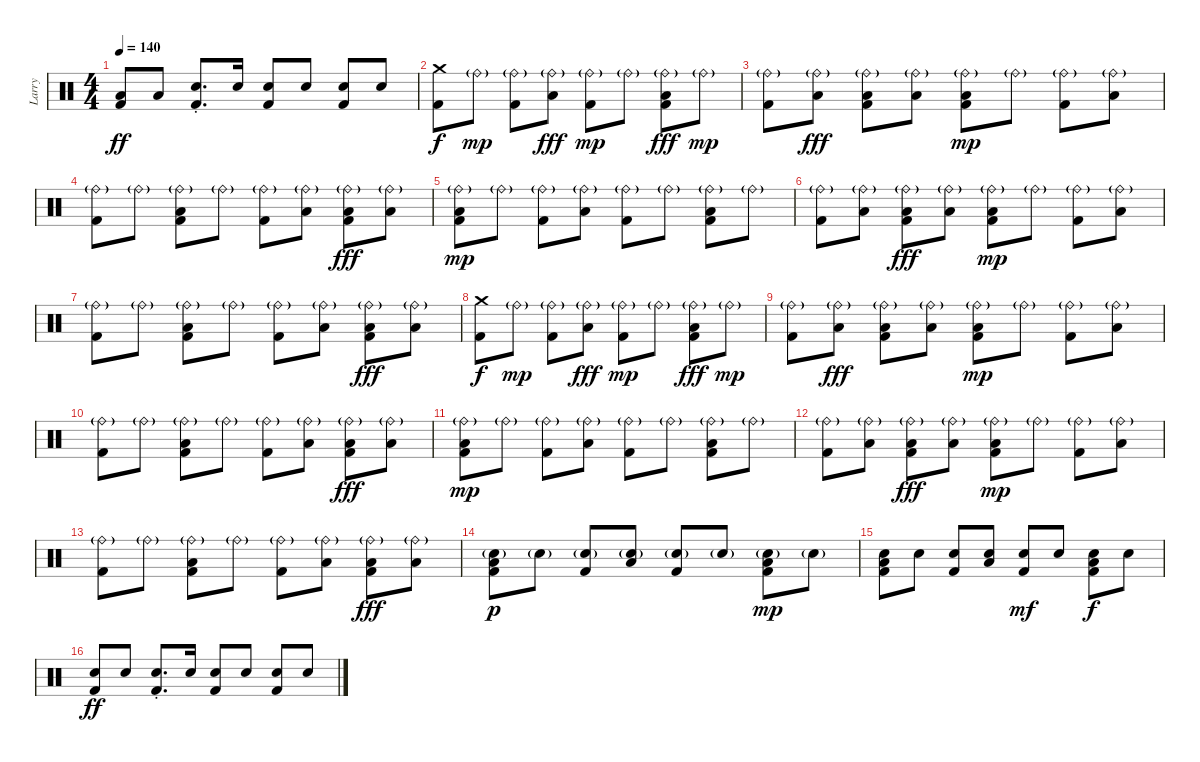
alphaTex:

\track ("Larry" "Larry") {instrument percussion}
\staff {score}
\articulation defaults
\ts (4 4)
\tempo 140
\clef neutral
\ks c
("Low Floor Tom (hit)" "Kick (hit) 2").8{dy ff} "Low Floor Tom (hit)".8 ("Electric Snare (hit)"{st} "Kick (hit) 2").8{d} "Electric Snare (hit)".16 ("Electric Snare (hit)" "Kick (hit) 2").8 "Electric Snare (hit)".8 ("Electric Snare (hit)" "Kick (hit) 2").8 "Electric Snare (hit)".8 |
("Crash medium (hit)" "Kick (hit) 2").8{dy f} "Ride (bell)"{g}.8{dy mp} ("Ride (bell)"{g} "Kick (hit) 2").8 ("Ride (bell)"{g} "Low Floor Tom (hit)").8{dy fff} ("Ride (bell)"{g} "Kick (hit) 2").8{dy mp} "Ride (bell)"{g}.8 ("Ride (bell)"{g} "Low Floor Tom (hit)" "Kick (hit) 2").8{dy fff} "Ride (bell)"{g}.8{dy mp} |
("Ride (bell)"{g} "Kick (hit) 2").8 ("Ride (bell)"{g} "Low Floor Tom (hit)").8{dy fff} ("Ride (bell)"{g} "Low Floor Tom (hit)" "Kick (hit) 2").8 ("Ride (bell)"{g} "Low Floor Tom (hit)").8 ("Ride (bell)"{g} "Low Floor Tom (hit)" "Kick (hit) 2").8{dy mp} "Ride (bell)"{g}.8 ("Ride (bell)"{g} "Kick (hit) 2").8 ("Ride (bell)"{g} "Low Floor Tom (hit)").8 |
("Ride (bell)"{g} "Kick (hit) 2").8 "Ride (bell)"{g}.8 ("Ride (bell)"{g} "Low Floor Tom (hit)" "Kick (hit) 2").8 "Ride (bell)"{g}.8 ("Ride (bell)"{g} "Kick (hit) 2").8 ("Ride (bell)"{g} "Low Floor Tom (hit)").8 ("Ride (bell)"{g} "Low Floor Tom (hit)" "Kick (hit) 2").8{dy fff} ("Ride (bell)"{g} "Low Floor Tom (hit)").8 |
("Ride (bell)"{g} "Low Floor Tom (hit)" "Kick (hit) 2").8{dy mp} "Ride (bell)"{g}.8 ("Ride (bell)"{g} "Kick (hit) 2").8 ("Ride (bell)"{g} "Low Floor Tom (hit)").8 ("Ride (bell)"{g} "Kick (hit) 2").8 "Ride (bell)"{g}.8 ("Ride (bell)"{g} "Low Floor Tom (hit)" "Kick (hit) 2").8 "Ride (bell)"{g}.8 |
("Ride (bell)"{g} "Kick (hit) 2").8 ("Ride (bell)"{g} "Low Floor Tom (hit)").8 ("Ride (bell)"{g} "Low Floor Tom (hit)" "Kick (hit) 2").8{dy fff} ("Ride (bell)"{g} "Low Floor Tom (hit)").8 ("Ride (bell)"{g} "Low Floor Tom (hit)" "Kick (hit) 2").8{dy mp} "Ride (bell)"{g}.8 ("Ride (bell)"{g} "Kick (hit) 2").8 ("Ride (bell)"{g} "Low Floor Tom (hit)").8 |
("Ride (bell)"{g} "Kick (hit) 2").8 "Ride (bell)"{g}.8 ("Ride (bell)"{g} "Low Floor Tom (hit)" "Kick (hit) 2").8 "Ride (bell)"{g}.8 ("Ride (bell)"{g} "Kick (hit) 2").8 ("Ride (bell)"{g} "Low Floor Tom (hit)").8 ("Ride (bell)"{g} "Low Floor Tom (hit)" "Kick (hit) 2").8{dy fff} ("Ride (bell)"{g} "Low Floor Tom (hit)").8 |
("Crash medium (hit)" "Kick (hit) 2").8{dy f} "Ride (bell)"{g}.8{dy mp} ("Ride (bell)"{g} "Kick (hit) 2").8 ("Ride (bell)"{g} "Low Floor Tom (hit)").8{dy fff} ("Ride (bell)"{g} "Kick (hit) 2").8{dy mp} "Ride (bell)"{g}.8 ("Ride (bell)"{g} "Low Floor Tom (hit)" "Kick (hit) 2").8{dy fff} "Ride (bell)"{g}.8{dy mp} |
("Ride (bell)"{g} "Kick (hit) 2").8 ("Ride (bell)"{g} "Low Floor Tom (hit)").8{dy fff} ("Ride (bell)"{g} "Low Floor Tom (hit)" "Kick (hit) 2").8 ("Ride (bell)"{g} "Low Floor Tom (hit)").8 ("Ride (bell)"{g} "Low Floor Tom (hit)" "Kick (hit) 2").8{dy mp} "Ride (bell)"{g}.8 ("Ride (bell)"{g} "Kick (hit) 2").8 ("Ride (bell)"{g} "Low Floor Tom (hit)").8 |
("Ride (bell)"{g} "Kick (hit) 2").8 "Ride (bell)"{g}.8 ("Ride (bell)"{g} "Low Floor Tom (hit)" "Kick (hit) 2").8 "Ride (bell)"{g}.8 ("Ride (bell)"{g} "Kick (hit) 2").8 ("Ride (bell)"{g} "Low Floor Tom (hit)").8 ("Ride (bell)"{g} "Low Floor Tom (hit)" "Kick (hit) 2").8{dy fff} ("Ride (bell)"{g} "Low Floor Tom (hit)").8 |
("Ride (bell)"{g} "Low Floor Tom (hit)" "Kick (hit) 2").8{dy mp} "Ride (bell)"{g}.8 ("Ride (bell)"{g} "Kick (hit) 2").8 ("Ride (bell)"{g} "Low Floor Tom (hit)").8 ("Ride (bell)"{g} "Kick (hit) 2").8 "Ride (bell)"{g}.8 ("Ride (bell)"{g} "Low Floor Tom (hit)" "Kick (hit) 2").8 "Ride (bell)"{g}.8 |
("Ride (bell)"{g} "Kick (hit) 2").8 ("Ride (bell)"{g} "Low Floor Tom (hit)").8 ("Ride (bell)"{g} "Low Floor Tom (hit)" "Kick (hit) 2").8{dy fff} ("Ride (bell)"{g} "Low Floor Tom (hit)").8 ("Ride (bell)"{g} "Low Floor Tom (hit)" "Kick (hit) 2").8{dy mp} "Ride (bell)"{g}.8 ("Ride (bell)"{g} "Kick (hit) 2").8 ("Ride (bell)"{g} "Low Floor Tom (hit)").8 |
("Ride (bell)"{g} "Kick (hit) 2").8 "Ride (bell)"{g}.8 ("Ride (bell)"{g} "Low Floor Tom (hit)" "Kick (hit) 2").8 "Ride (bell)"{g}.8 ("Ride (bell)"{g} "Kick (hit) 2").8 ("Ride (bell)"{g} "Low Floor Tom (hit)").8 ("Ride (bell)"{g} "Low Floor Tom (hit)" "Kick (hit) 2").8{dy fff} ("Ride (bell)"{g} "Low Floor Tom (hit)").8 |
("Electric Snare (hit)"{g} "Low Floor Tom (hit)" "Kick (hit) 2").8{dy p} "Electric Snare (hit)"{g}.8 ("Electric Snare (hit)"{g} "Kick (hit) 2").8 ("Electric Snare (hit)"{g} "Low Floor Tom (hit)").8 ("Electric Snare (hit)"{g} "Kick (hit) 2").8 "Electric Snare (hit)"{g}.8 ("Electric Snare (hit)"{g} "Low Floor Tom (hit)" "Kick (hit) 2").8{dy mp} "Electric Snare (hit)"{g}.8 |
("Electric Snare (hit)" "Low Floor Tom (hit)" "Kick (hit) 2").8 "Electric Snare (hit)".8 ("Electric Snare (hit)" "Kick (hit) 2").8 ("Electric Snare (hit)" "Low Floor Tom (hit)").8 ("Electric Snare (hit)" "Kick (hit) 2").8{dy mf} "Electric Snare (hit)".8 ("Electric Snare (hit)" "Low Floor Tom (hit)" "Kick (hit) 2").8{dy f} "Electric Snare (hit)".8 |
("Electric Snare (hit)" "Kick (hit) 2").8{dy ff} "Electric Snare (hit)".8 ("Electric Snare (hit)"{st} "Kick (hit) 2").8{d} "Electric Snare (hit)".16 ("Electric Snare (hit)" "Kick (hit) 2").8 "Electric Snare (hit)".8 ("Electric Snare (hit)" "Kick (hit) 2").8 "Electric Snare (hit)".8
